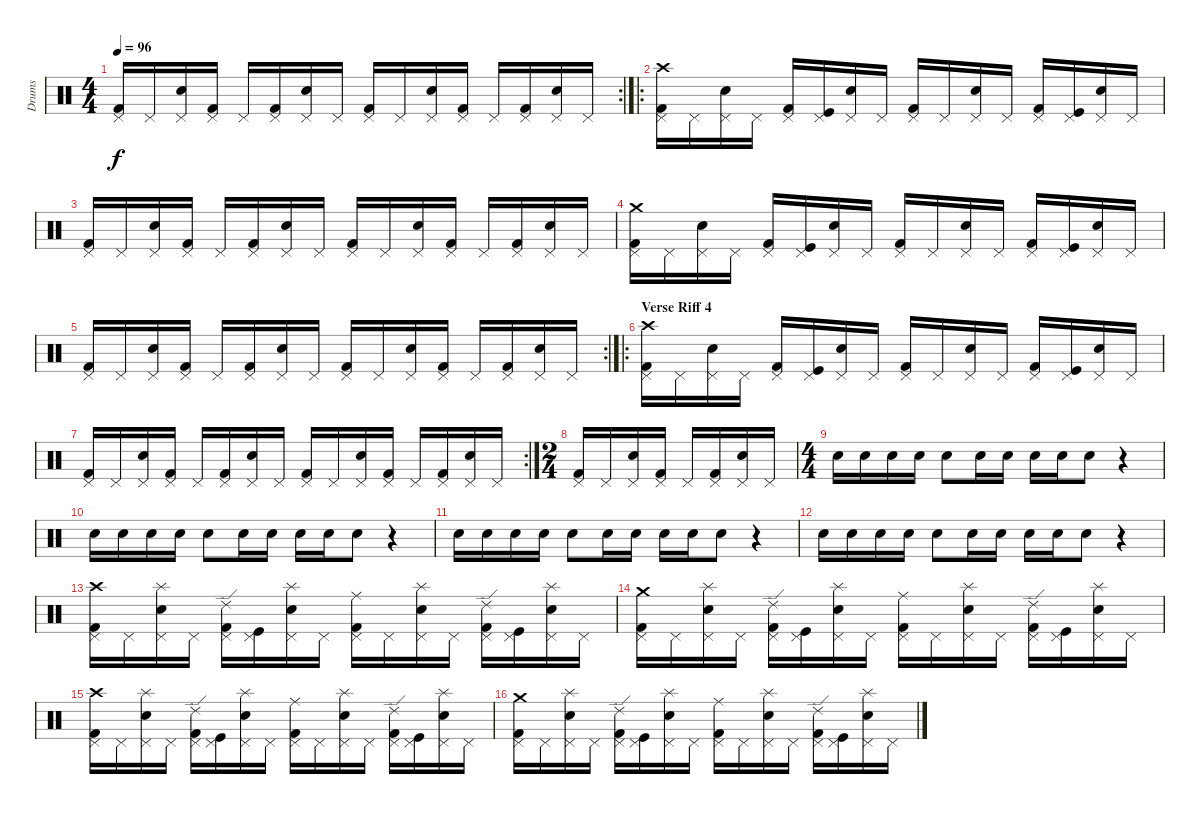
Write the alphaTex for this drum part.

\track ("Drums" "Drums") {instrument percussion}
\staff {score}
\articulation defaults
\rc 2
\ts (4 4)
\tempo 96
\clef neutral
\ks c
("Kick (hit) 2" "Pedal Hi-Hat (hit)").16{dy f} "Pedal Hi-Hat (hit)".16 ("Snare (hit) 2" "Pedal Hi-Hat (hit)").16 ("Kick (hit) 2" "Pedal Hi-Hat (hit)").16 "Pedal Hi-Hat (hit)".16 ("Kick (hit) 2" "Pedal Hi-Hat (hit)").16 ("Snare (hit) 2" "Pedal Hi-Hat (hit)").16 "Pedal Hi-Hat (hit)".16 ("Kick (hit) 2" "Pedal Hi-Hat (hit)").16 "Pedal Hi-Hat (hit)".16 ("Snare (hit) 2" "Pedal Hi-Hat (hit)").16 ("Kick (hit) 2" "Pedal Hi-Hat (hit)").16 "Pedal Hi-Hat (hit)".16 ("Kick (hit) 2" "Pedal Hi-Hat (hit)").16 ("Snare (hit) 2" "Pedal Hi-Hat (hit)").16 "Pedal Hi-Hat (hit)".16 |
\ro
("Kick (hit) 2" "Pedal Hi-Hat (hit)" "Crash high (hit)").16 "Pedal Hi-Hat (hit)".16 ("Snare (hit) 2" "Pedal Hi-Hat (hit)").16 "Pedal Hi-Hat (hit)".16 ("Kick (hit) 2" "Pedal Hi-Hat (hit)").16 ("Kick (hit)" "Pedal Hi-Hat (hit)").16 ("Snare (hit) 2" "Pedal Hi-Hat (hit)").16 "Pedal Hi-Hat (hit)".16 ("Kick (hit) 2" "Pedal Hi-Hat (hit)").16 "Pedal Hi-Hat (hit)".16 ("Snare (hit) 2" "Pedal Hi-Hat (hit)").16 "Pedal Hi-Hat (hit)".16 ("Kick (hit) 2" "Pedal Hi-Hat (hit)").16 ("Kick (hit)" "Pedal Hi-Hat (hit)").16 ("Snare (hit) 2" "Pedal Hi-Hat (hit)").16 "Pedal Hi-Hat (hit)".16 |
("Kick (hit) 2" "Pedal Hi-Hat (hit)").16 "Pedal Hi-Hat (hit)".16 ("Snare (hit) 2" "Pedal Hi-Hat (hit)").16 ("Kick (hit) 2" "Pedal Hi-Hat (hit)").16 "Pedal Hi-Hat (hit)".16 ("Kick (hit) 2" "Pedal Hi-Hat (hit)").16 ("Snare (hit) 2" "Pedal Hi-Hat (hit)").16 "Pedal Hi-Hat (hit)".16 ("Kick (hit) 2" "Pedal Hi-Hat (hit)").16 "Pedal Hi-Hat (hit)".16 ("Snare (hit) 2" "Pedal Hi-Hat (hit)").16 ("Kick (hit) 2" "Pedal Hi-Hat (hit)").16 "Pedal Hi-Hat (hit)".16 ("Kick (hit) 2" "Pedal Hi-Hat (hit)").16 ("Snare (hit) 2" "Pedal Hi-Hat (hit)").16 "Pedal Hi-Hat (hit)".16 |
("Kick (hit) 2" "Pedal Hi-Hat (hit)" "Crash medium (hit)").16 "Pedal Hi-Hat (hit)".16 ("Snare (hit) 2" "Pedal Hi-Hat (hit)").16 "Pedal Hi-Hat (hit)".16 ("Kick (hit) 2" "Pedal Hi-Hat (hit)").16 ("Kick (hit)" "Pedal Hi-Hat (hit)").16 ("Snare (hit) 2" "Pedal Hi-Hat (hit)").16 "Pedal Hi-Hat (hit)".16 ("Kick (hit) 2" "Pedal Hi-Hat (hit)").16 "Pedal Hi-Hat (hit)".16 ("Snare (hit) 2" "Pedal Hi-Hat (hit)").16 "Pedal Hi-Hat (hit)".16 ("Kick (hit) 2" "Pedal Hi-Hat (hit)").16 ("Kick (hit)" "Pedal Hi-Hat (hit)").16 ("Snare (hit) 2" "Pedal Hi-Hat (hit)").16 "Pedal Hi-Hat (hit)".16 |
\rc 2
("Kick (hit) 2" "Pedal Hi-Hat (hit)").16 "Pedal Hi-Hat (hit)".16 ("Snare (hit) 2" "Pedal Hi-Hat (hit)").16 ("Kick (hit) 2" "Pedal Hi-Hat (hit)").16 "Pedal Hi-Hat (hit)".16 ("Kick (hit) 2" "Pedal Hi-Hat (hit)").16 ("Snare (hit) 2" "Pedal Hi-Hat (hit)").16 "Pedal Hi-Hat (hit)".16 ("Kick (hit) 2" "Pedal Hi-Hat (hit)").16 "Pedal Hi-Hat (hit)".16 ("Snare (hit) 2" "Pedal Hi-Hat (hit)").16 ("Kick (hit) 2" "Pedal Hi-Hat (hit)").16 "Pedal Hi-Hat (hit)".16 ("Kick (hit) 2" "Pedal Hi-Hat (hit)").16 ("Snare (hit) 2" "Pedal Hi-Hat (hit)").16 "Pedal Hi-Hat (hit)".16 |
\ro
\section ("" "Verse Riff 4")
("Kick (hit) 2" "Pedal Hi-Hat (hit)" "Crash high (hit)").16 "Pedal Hi-Hat (hit)".16 ("Snare (hit) 2" "Pedal Hi-Hat (hit)").16 "Pedal Hi-Hat (hit)".16 ("Kick (hit) 2" "Pedal Hi-Hat (hit)").16 ("Kick (hit)" "Pedal Hi-Hat (hit)").16 ("Snare (hit) 2" "Pedal Hi-Hat (hit)").16 "Pedal Hi-Hat (hit)".16 ("Kick (hit) 2" "Pedal Hi-Hat (hit)").16 "Pedal Hi-Hat (hit)".16 ("Snare (hit) 2" "Pedal Hi-Hat (hit)").16 "Pedal Hi-Hat (hit)".16 ("Kick (hit) 2" "Pedal Hi-Hat (hit)").16 ("Kick (hit)" "Pedal Hi-Hat (hit)").16 ("Snare (hit) 2" "Pedal Hi-Hat (hit)").16 "Pedal Hi-Hat (hit)".16 |
\rc 2
("Kick (hit) 2" "Pedal Hi-Hat (hit)").16 "Pedal Hi-Hat (hit)".16 ("Snare (hit) 2" "Pedal Hi-Hat (hit)").16 ("Kick (hit) 2" "Pedal Hi-Hat (hit)").16 "Pedal Hi-Hat (hit)".16 ("Kick (hit) 2" "Pedal Hi-Hat (hit)").16 ("Snare (hit) 2" "Pedal Hi-Hat (hit)").16 "Pedal Hi-Hat (hit)".16 ("Kick (hit) 2" "Pedal Hi-Hat (hit)").16 "Pedal Hi-Hat (hit)".16 ("Snare (hit) 2" "Pedal Hi-Hat (hit)").16 ("Kick (hit) 2" "Pedal Hi-Hat (hit)").16 "Pedal Hi-Hat (hit)".16 ("Kick (hit) 2" "Pedal Hi-Hat (hit)").16 ("Snare (hit) 2" "Pedal Hi-Hat (hit)").16 "Pedal Hi-Hat (hit)".16 |
\ts (2 4)
("Kick (hit) 2" "Pedal Hi-Hat (hit)").16 "Pedal Hi-Hat (hit)".16 ("Snare (hit) 2" "Pedal Hi-Hat (hit)").16 ("Kick (hit) 2" "Pedal Hi-Hat (hit)").16 "Pedal Hi-Hat (hit)".16 ("Kick (hit) 2" "Pedal Hi-Hat (hit)").16 ("Snare (hit) 2" "Pedal Hi-Hat (hit)").16 "Pedal Hi-Hat (hit)".16 |
\ts (4 4)
"Snare (hit) 2".16 "Snare (hit) 2".16 "Snare (hit) 2".16 "Snare (hit) 2".16 "Snare (hit) 2".8 "Snare (hit) 2".16 "Snare (hit) 2".16 "Snare (hit) 2".16 "Snare (hit) 2".16 "Snare (hit) 2".8 r.4 |
"Snare (hit) 2".16 "Snare (hit) 2".16 "Snare (hit) 2".16 "Snare (hit) 2".16 "Snare (hit) 2".8 "Snare (hit) 2".16 "Snare (hit) 2".16 "Snare (hit) 2".16 "Snare (hit) 2".16 "Snare (hit) 2".8 r.4 |
"Snare (hit) 2".16 "Snare (hit) 2".16 "Snare (hit) 2".16 "Snare (hit) 2".16 "Snare (hit) 2".8 "Snare (hit) 2".16 "Snare (hit) 2".16 "Snare (hit) 2".16 "Snare (hit) 2".16 "Snare (hit) 2".8 r.4 |
"Snare (hit) 2".16 "Snare (hit) 2".16 "Snare (hit) 2".16 "Snare (hit) 2".16 "Snare (hit) 2".8 "Snare (hit) 2".16 "Snare (hit) 2".16 "Snare (hit) 2".16 "Snare (hit) 2".16 "Snare (hit) 2".8 r.4 |
("Kick (hit) 2" "Pedal Hi-Hat (hit)" "Crash high (hit)").16 "Pedal Hi-Hat (hit)".16 ("Snare (hit) 2" "Pedal Hi-Hat (hit)" "Splash (hit)").16 "Pedal Hi-Hat (hit)".16 ("Kick (hit) 2" "Pedal Hi-Hat (hit)" "Ride (edge) 2").16 ("Kick (hit)" "Pedal Hi-Hat (hit)").16 ("Snare (hit) 2" "Pedal Hi-Hat (hit)" "Splash (hit)").16 "Pedal Hi-Hat (hit)".16 ("Kick (hit) 2" "Pedal Hi-Hat (hit)" "Ride (middle)").16 "Pedal Hi-Hat (hit)".16 ("Snare (hit) 2" "Pedal Hi-Hat (hit)" "Splash (hit)").16 "Pedal Hi-Hat (hit)".16 ("Kick (hit) 2" "Pedal Hi-Hat (hit)" "Ride (edge) 2").16 ("Kick (hit)" "Pedal Hi-Hat (hit)").16 ("Snare (hit) 2" "Pedal Hi-Hat (hit)" "Splash (hit)").16 "Pedal Hi-Hat (hit)".16 |
("Kick (hit) 2" "Pedal Hi-Hat (hit)" "Crash medium (hit)").16 "Pedal Hi-Hat (hit)".16 ("Snare (hit) 2" "Pedal Hi-Hat (hit)" "Splash (hit)").16 "Pedal Hi-Hat (hit)".16 ("Kick (hit) 2" "Pedal Hi-Hat (hit)" "Ride (edge) 2").16 ("Kick (hit)" "Pedal Hi-Hat (hit)").16 ("Snare (hit) 2" "Pedal Hi-Hat (hit)" "Splash (hit)").16 "Pedal Hi-Hat (hit)".16 ("Kick (hit) 2" "Pedal Hi-Hat (hit)" "Ride (middle)").16 "Pedal Hi-Hat (hit)".16 ("Snare (hit) 2" "Pedal Hi-Hat (hit)" "Splash (hit)").16 "Pedal Hi-Hat (hit)".16 ("Kick (hit) 2" "Pedal Hi-Hat (hit)" "Ride (edge) 2").16 ("Kick (hit)" "Pedal Hi-Hat (hit)").16 ("Snare (hit) 2" "Pedal Hi-Hat (hit)" "Splash (hit)").16 "Pedal Hi-Hat (hit)".16 |
("Kick (hit) 2" "Pedal Hi-Hat (hit)" "Crash high (hit)").16 "Pedal Hi-Hat (hit)".16 ("Snare (hit) 2" "Pedal Hi-Hat (hit)" "Splash (hit)").16 "Pedal Hi-Hat (hit)".16 ("Kick (hit) 2" "Pedal Hi-Hat (hit)" "Ride (edge) 2").16 ("Kick (hit)" "Pedal Hi-Hat (hit)").16 ("Snare (hit) 2" "Pedal Hi-Hat (hit)" "Splash (hit)").16 "Pedal Hi-Hat (hit)".16 ("Kick (hit) 2" "Pedal Hi-Hat (hit)" "Ride (middle)").16 "Pedal Hi-Hat (hit)".16 ("Snare (hit) 2" "Pedal Hi-Hat (hit)" "Splash (hit)").16 "Pedal Hi-Hat (hit)".16 ("Kick (hit) 2" "Pedal Hi-Hat (hit)" "Ride (edge) 2").16 ("Kick (hit)" "Pedal Hi-Hat (hit)").16 ("Snare (hit) 2" "Pedal Hi-Hat (hit)" "Splash (hit)").16 "Pedal Hi-Hat (hit)".16 |
("Kick (hit) 2" "Pedal Hi-Hat (hit)" "Crash medium (hit)").16 "Pedal Hi-Hat (hit)".16 ("Snare (hit) 2" "Pedal Hi-Hat (hit)" "Splash (hit)").16 "Pedal Hi-Hat (hit)".16 ("Kick (hit) 2" "Pedal Hi-Hat (hit)" "Ride (edge) 2").16 ("Kick (hit)" "Pedal Hi-Hat (hit)").16 ("Snare (hit) 2" "Pedal Hi-Hat (hit)" "Splash (hit)").16 "Pedal Hi-Hat (hit)".16 ("Kick (hit) 2" "Pedal Hi-Hat (hit)" "Ride (middle)").16 "Pedal Hi-Hat (hit)".16 ("Snare (hit) 2" "Pedal Hi-Hat (hit)" "Splash (hit)").16 "Pedal Hi-Hat (hit)".16 ("Kick (hit) 2" "Pedal Hi-Hat (hit)" "Ride (edge) 2").16 ("Kick (hit)" "Pedal Hi-Hat (hit)").16 ("Snare (hit) 2" "Pedal Hi-Hat (hit)" "Splash (hit)").16 "Pedal Hi-Hat (hit)".16
